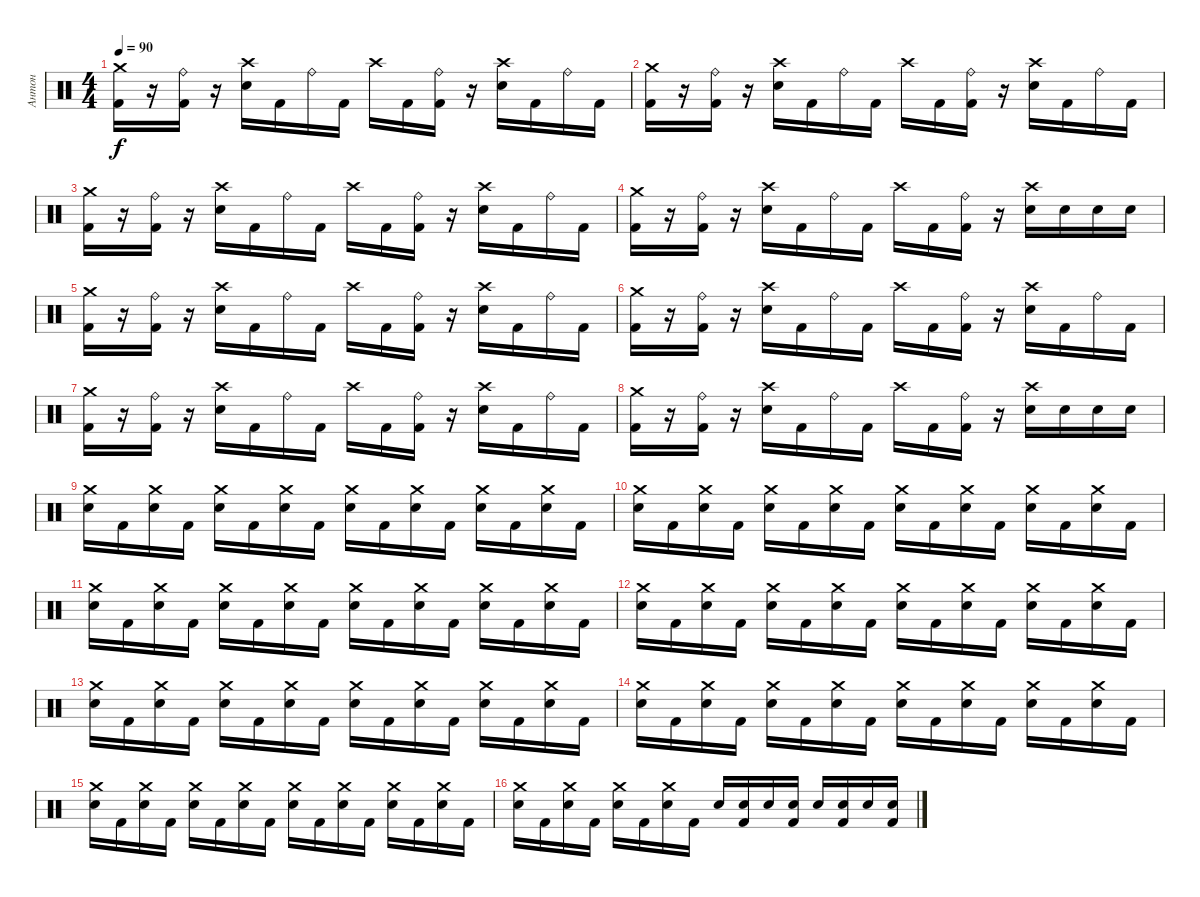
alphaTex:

\track ("Антон" "Антон") {instrument percussion}
\staff {score}
\articulation defaults
\ts (4 4)
\tempo 90
\clef neutral
\ks c
("Crash medium (hit)" "Kick (hit) 2").16{dy f} r.16 ("Ride (bell)" "Kick (hit) 2").16 r.16 ("Crash high (hit)" "Electric Snare (hit)").16 "Kick (hit) 2".16 "Ride (bell)".16 "Kick (hit) 2".16 "Crash high (hit)".16 "Kick (hit) 2".16 ("Ride (bell)" "Kick (hit) 2").16 r.16 ("Crash high (hit)" "Electric Snare (hit)").16 "Kick (hit) 2".16 "Ride (bell)".16 "Kick (hit) 2".16 |
("Crash medium (hit)" "Kick (hit) 2").16 r.16 ("Ride (bell)" "Kick (hit) 2").16 r.16 ("Crash high (hit)" "Electric Snare (hit)").16 "Kick (hit) 2".16 "Ride (bell)".16 "Kick (hit) 2".16 "Crash high (hit)".16 "Kick (hit) 2".16 ("Ride (bell)" "Kick (hit) 2").16 r.16 ("Crash high (hit)" "Electric Snare (hit)").16 "Kick (hit) 2".16 "Ride (bell)".16 "Kick (hit) 2".16 |
("Crash medium (hit)" "Kick (hit) 2").16 r.16 ("Ride (bell)" "Kick (hit) 2").16 r.16 ("Crash high (hit)" "Electric Snare (hit)").16 "Kick (hit) 2".16 "Ride (bell)".16 "Kick (hit) 2".16 "Crash high (hit)".16 "Kick (hit) 2".16 ("Ride (bell)" "Kick (hit) 2").16 r.16 ("Crash high (hit)" "Electric Snare (hit)").16 "Kick (hit) 2".16 "Ride (bell)".16 "Kick (hit) 2".16 |
("Crash medium (hit)" "Kick (hit) 2").16 r.16 ("Ride (bell)" "Kick (hit) 2").16 r.16 ("Crash high (hit)" "Electric Snare (hit)").16 "Kick (hit) 2".16 "Ride (bell)".16 "Kick (hit) 2".16 "Crash high (hit)".16 "Kick (hit) 2".16 ("Ride (bell)" "Kick (hit) 2").16 r.16 ("Crash high (hit)" "Electric Snare (hit)").16 "Electric Snare (hit)".16 "Electric Snare (hit)".16 "Electric Snare (hit)".16 |
("Crash medium (hit)" "Kick (hit) 2").16 r.16 ("Ride (bell)" "Kick (hit) 2").16 r.16 ("Crash high (hit)" "Electric Snare (hit)").16 "Kick (hit) 2".16 "Ride (bell)".16 "Kick (hit) 2".16 "Crash high (hit)".16 "Kick (hit) 2".16 ("Ride (bell)" "Kick (hit) 2").16 r.16 ("Crash high (hit)" "Electric Snare (hit)").16 "Kick (hit) 2".16 "Ride (bell)".16 "Kick (hit) 2".16 |
("Crash medium (hit)" "Kick (hit) 2").16 r.16 ("Ride (bell)" "Kick (hit) 2").16 r.16 ("Crash high (hit)" "Electric Snare (hit)").16 "Kick (hit) 2".16 "Ride (bell)".16 "Kick (hit) 2".16 "Crash high (hit)".16 "Kick (hit) 2".16 ("Ride (bell)" "Kick (hit) 2").16 r.16 ("Crash high (hit)" "Electric Snare (hit)").16 "Kick (hit) 2".16 "Ride (bell)".16 "Kick (hit) 2".16 |
("Crash medium (hit)" "Kick (hit) 2").16 r.16 ("Ride (bell)" "Kick (hit) 2").16 r.16 ("Crash high (hit)" "Electric Snare (hit)").16 "Kick (hit) 2".16 "Ride (bell)".16 "Kick (hit) 2".16 "Crash high (hit)".16 "Kick (hit) 2".16 ("Ride (bell)" "Kick (hit) 2").16 r.16 ("Crash high (hit)" "Electric Snare (hit)").16 "Kick (hit) 2".16 "Ride (bell)".16 "Kick (hit) 2".16 |
("Crash medium (hit)" "Kick (hit) 2").16 r.16 ("Ride (bell)" "Kick (hit) 2").16 r.16 ("Crash high (hit)" "Electric Snare (hit)").16 "Kick (hit) 2".16 "Ride (bell)".16 "Kick (hit) 2".16 "Crash high (hit)".16 "Kick (hit) 2".16 ("Ride (bell)" "Kick (hit) 2").16 r.16 ("Crash high (hit)" "Electric Snare (hit)").16 "Electric Snare (hit)".16 "Electric Snare (hit)".16 "Electric Snare (hit)".16 |
("Crash medium (hit)" "Electric Snare (hit)").16 "Kick (hit) 2".16 ("Crash medium (hit)" "Electric Snare (hit)").16 "Kick (hit) 2".16 ("Crash medium (hit)" "Electric Snare (hit)").16 "Kick (hit) 2".16 ("Crash medium (hit)" "Electric Snare (hit)").16 "Kick (hit) 2".16 ("Crash medium (hit)" "Electric Snare (hit)").16 "Kick (hit) 2".16 ("Crash medium (hit)" "Electric Snare (hit)").16 "Kick (hit) 2".16 ("Crash medium (hit)" "Electric Snare (hit)").16 "Kick (hit) 2".16 ("Crash medium (hit)" "Electric Snare (hit)").16 "Kick (hit) 2".16 |
("Crash medium (hit)" "Electric Snare (hit)").16 "Kick (hit) 2".16 ("Crash medium (hit)" "Electric Snare (hit)").16 "Kick (hit) 2".16 ("Crash medium (hit)" "Electric Snare (hit)").16 "Kick (hit) 2".16 ("Crash medium (hit)" "Electric Snare (hit)").16 "Kick (hit) 2".16 ("Crash medium (hit)" "Electric Snare (hit)").16 "Kick (hit) 2".16 ("Crash medium (hit)" "Electric Snare (hit)").16 "Kick (hit) 2".16 ("Crash medium (hit)" "Electric Snare (hit)").16 "Kick (hit) 2".16 ("Crash medium (hit)" "Electric Snare (hit)").16 "Kick (hit) 2".16 |
("Crash medium (hit)" "Electric Snare (hit)").16 "Kick (hit) 2".16 ("Crash medium (hit)" "Electric Snare (hit)").16 "Kick (hit) 2".16 ("Crash medium (hit)" "Electric Snare (hit)").16 "Kick (hit) 2".16 ("Crash medium (hit)" "Electric Snare (hit)").16 "Kick (hit) 2".16 ("Crash medium (hit)" "Electric Snare (hit)").16 "Kick (hit) 2".16 ("Crash medium (hit)" "Electric Snare (hit)").16 "Kick (hit) 2".16 ("Crash medium (hit)" "Electric Snare (hit)").16 "Kick (hit) 2".16 ("Crash medium (hit)" "Electric Snare (hit)").16 "Kick (hit) 2".16 |
("Crash medium (hit)" "Electric Snare (hit)").16 "Kick (hit) 2".16 ("Crash medium (hit)" "Electric Snare (hit)").16 "Kick (hit) 2".16 ("Crash medium (hit)" "Electric Snare (hit)").16 "Kick (hit) 2".16 ("Crash medium (hit)" "Electric Snare (hit)").16 "Kick (hit) 2".16 ("Crash medium (hit)" "Electric Snare (hit)").16 "Kick (hit) 2".16 ("Crash medium (hit)" "Electric Snare (hit)").16 "Kick (hit) 2".16 ("Crash medium (hit)" "Electric Snare (hit)").16 "Kick (hit) 2".16 ("Crash medium (hit)" "Electric Snare (hit)").16 "Kick (hit) 2".16 |
("Crash medium (hit)" "Electric Snare (hit)").16 "Kick (hit) 2".16 ("Crash medium (hit)" "Electric Snare (hit)").16 "Kick (hit) 2".16 ("Crash medium (hit)" "Electric Snare (hit)").16 "Kick (hit) 2".16 ("Crash medium (hit)" "Electric Snare (hit)").16 "Kick (hit) 2".16 ("Crash medium (hit)" "Electric Snare (hit)").16 "Kick (hit) 2".16 ("Crash medium (hit)" "Electric Snare (hit)").16 "Kick (hit) 2".16 ("Crash medium (hit)" "Electric Snare (hit)").16 "Kick (hit) 2".16 ("Crash medium (hit)" "Electric Snare (hit)").16 "Kick (hit) 2".16 |
("Crash medium (hit)" "Electric Snare (hit)").16 "Kick (hit) 2".16 ("Crash medium (hit)" "Electric Snare (hit)").16 "Kick (hit) 2".16 ("Crash medium (hit)" "Electric Snare (hit)").16 "Kick (hit) 2".16 ("Crash medium (hit)" "Electric Snare (hit)").16 "Kick (hit) 2".16 ("Crash medium (hit)" "Electric Snare (hit)").16 "Kick (hit) 2".16 ("Crash medium (hit)" "Electric Snare (hit)").16 "Kick (hit) 2".16 ("Crash medium (hit)" "Electric Snare (hit)").16 "Kick (hit) 2".16 ("Crash medium (hit)" "Electric Snare (hit)").16 "Kick (hit) 2".16 |
("Crash medium (hit)" "Electric Snare (hit)").16 "Kick (hit) 2".16 ("Crash medium (hit)" "Electric Snare (hit)").16 "Kick (hit) 2".16 ("Crash medium (hit)" "Electric Snare (hit)").16 "Kick (hit) 2".16 ("Crash medium (hit)" "Electric Snare (hit)").16 "Kick (hit) 2".16 ("Crash medium (hit)" "Electric Snare (hit)").16 "Kick (hit) 2".16 ("Crash medium (hit)" "Electric Snare (hit)").16 "Kick (hit) 2".16 ("Crash medium (hit)" "Electric Snare (hit)").16 "Kick (hit) 2".16 ("Crash medium (hit)" "Electric Snare (hit)").16 "Kick (hit) 2".16 |
("Crash medium (hit)" "Electric Snare (hit)").16 "Kick (hit) 2".16 ("Crash medium (hit)" "Electric Snare (hit)").16 "Kick (hit) 2".16 ("Crash medium (hit)" "Electric Snare (hit)").16 "Kick (hit) 2".16 ("Crash medium (hit)" "Electric Snare (hit)").16 "Kick (hit) 2".16 "Electric Snare (hit)".16 ("Electric Snare (hit)" "Kick (hit) 2").16 "Electric Snare (hit)".16 ("Electric Snare (hit)" "Kick (hit) 2").16 "Electric Snare (hit)".16 ("Electric Snare (hit)" "Kick (hit) 2").16 "Electric Snare (hit)".16 ("Electric Snare (hit)" "Kick (hit) 2").16
